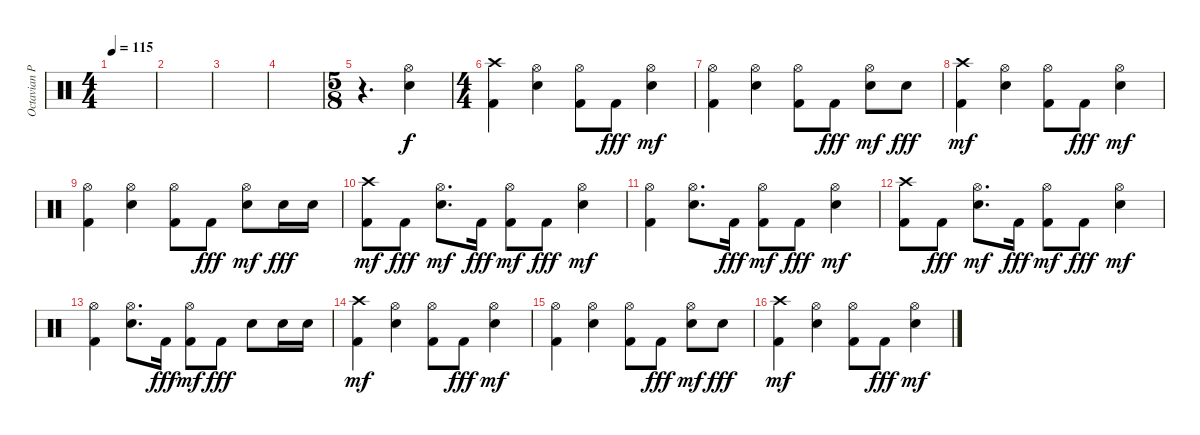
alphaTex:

\track ("Octavian Pilan" "Octavian P") {instrument percussion}
\staff {score}
\articulation defaults
\ts (4 4)
\tempo 115
\clef neutral
\ks c
|
|
|
|
\ts (5 8)
r.4{d} ("Electric Snare (hit)" "Hi-Hat (open)").4 |
\ts (4 4)
("Kick (hit) 2" "Crash high (hit)").4 ("Electric Snare (hit)" "Hi-Hat (open)").4 ("Kick (hit) 2" "Hi-Hat (open)").8 "Kick (hit) 2".8{dy fff} ("Electric Snare (hit)" "Hi-Hat (open)").4{dy mf} |
("Kick (hit) 2" "Hi-Hat (open)").4 ("Electric Snare (hit)" "Hi-Hat (open)").4 ("Kick (hit) 2" "Hi-Hat (open)").8 "Kick (hit) 2".8{dy fff} ("Electric Snare (hit)" "Hi-Hat (open)").8{dy mf} "Electric Snare (hit)".8{dy fff} |
("Kick (hit) 2" "Crash high (hit)").4{dy mf} ("Electric Snare (hit)" "Hi-Hat (open)").4 ("Kick (hit) 2" "Hi-Hat (open)").8 "Kick (hit) 2".8{dy fff} ("Electric Snare (hit)" "Hi-Hat (open)").4{dy mf} |
("Kick (hit) 2" "Hi-Hat (open)").4 ("Electric Snare (hit)" "Hi-Hat (open)").4 ("Kick (hit) 2" "Hi-Hat (open)").8 "Kick (hit) 2".8{dy fff} ("Electric Snare (hit)" "Hi-Hat (open)").8{dy mf} "Electric Snare (hit)".16{dy fff} "Electric Snare (hit)".16 |
("Kick (hit) 2" "Crash high (hit)").8{dy mf} "Kick (hit) 2".8{dy fff} ("Electric Snare (hit)" "Hi-Hat (open)").8{d dy mf} "Kick (hit) 2".16{dy fff} ("Kick (hit) 2" "Hi-Hat (open)").8{dy mf} "Kick (hit) 2".8{dy fff} ("Electric Snare (hit)" "Hi-Hat (open)").4{dy mf} |
("Kick (hit) 2" "Hi-Hat (open)").4 ("Electric Snare (hit)" "Hi-Hat (open)").8{d} "Kick (hit) 2".16{dy fff} ("Kick (hit) 2" "Hi-Hat (open)").8{dy mf} "Kick (hit) 2".8{dy fff} ("Electric Snare (hit)" "Hi-Hat (open)").4{dy mf} |
("Kick (hit) 2" "Crash high (hit)").8 "Kick (hit) 2".8{dy fff} ("Electric Snare (hit)" "Hi-Hat (open)").8{d dy mf} "Kick (hit) 2".16{dy fff} ("Kick (hit) 2" "Hi-Hat (open)").8{dy mf} "Kick (hit) 2".8{dy fff} ("Electric Snare (hit)" "Hi-Hat (open)").4{dy mf} |
("Kick (hit) 2" "Hi-Hat (open)").4 ("Electric Snare (hit)" "Hi-Hat (open)").8{d} "Kick (hit) 2".16{dy fff} ("Kick (hit) 2" "Hi-Hat (open)").8{dy mf} "Kick (hit) 2".8{dy fff} "Electric Snare (hit)".8 "Electric Snare (hit)".16 "Electric Snare (hit)".16 |
("Kick (hit) 2" "Crash high (hit)").4{dy mf} ("Electric Snare (hit)" "Hi-Hat (open)").4 ("Kick (hit) 2" "Hi-Hat (open)").8 "Kick (hit) 2".8{dy fff} ("Electric Snare (hit)" "Hi-Hat (open)").4{dy mf} |
("Kick (hit) 2" "Hi-Hat (open)").4 ("Electric Snare (hit)" "Hi-Hat (open)").4 ("Kick (hit) 2" "Hi-Hat (open)").8 "Kick (hit) 2".8{dy fff} ("Electric Snare (hit)" "Hi-Hat (open)").8{dy mf} "Electric Snare (hit)".8{dy fff} |
("Kick (hit) 2" "Crash high (hit)").4{dy mf} ("Electric Snare (hit)" "Hi-Hat (open)").4 ("Kick (hit) 2" "Hi-Hat (open)").8 "Kick (hit) 2".8{dy fff} ("Electric Snare (hit)" "Hi-Hat (open)").4{dy mf}
